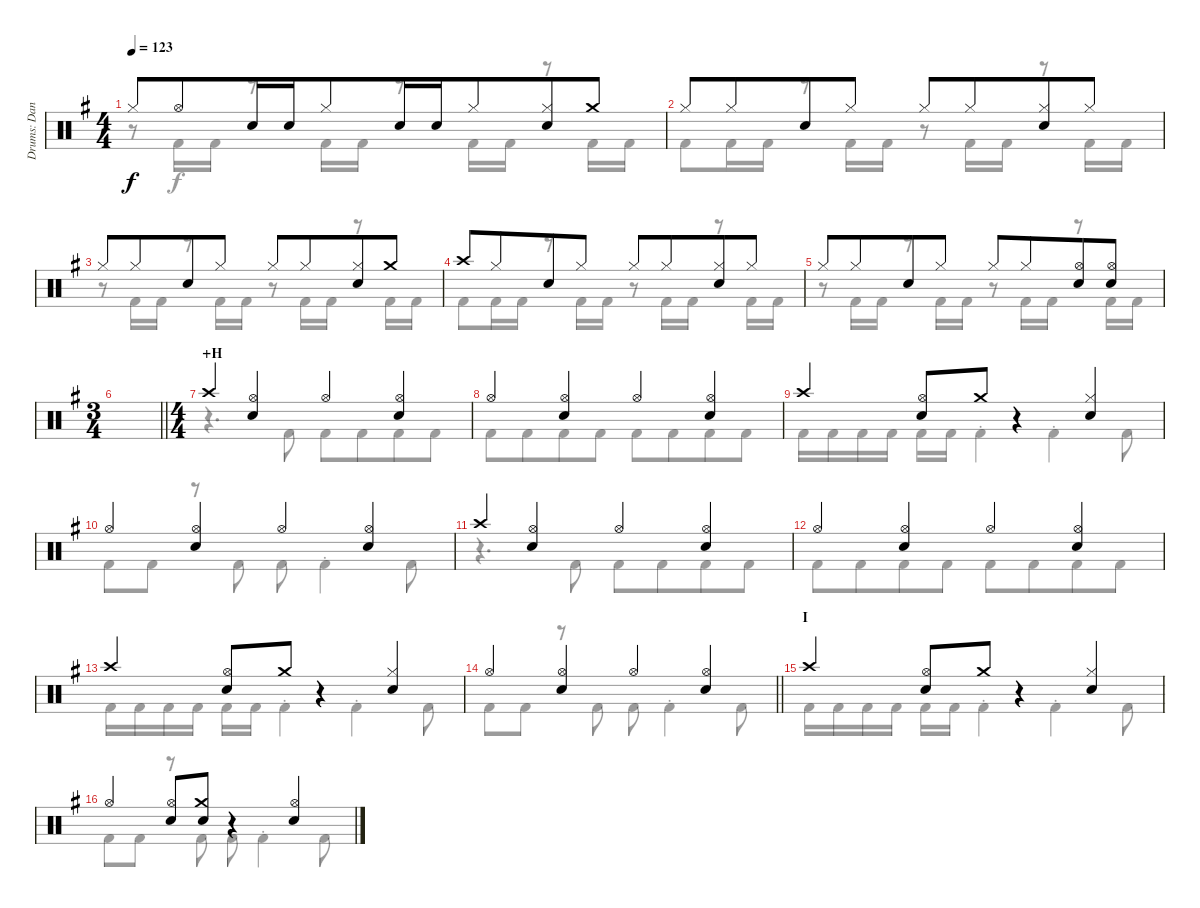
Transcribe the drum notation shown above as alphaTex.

\track ("Drums: Dana" "Drums: Dan") {instrument percussion}
\staff {score}
\articulation defaults
\voice
\ts (4 4)
\tempo 123
\clef neutral
\ks g "Hi-Hat (closed)".8{dy f} "Hi-Hat (open)".8{beam merge} "Snare (hit) 2".16{beam merge} "Snare (hit) 2".16 "Hi-Hat (closed)".8{beam merge} "Snare (hit) 2".16{beam merge} "Snare (hit) 2".16 "Hi-Hat (closed)".8{beam merge}
("Hi-Hat (closed)" "Snare (hit) 2").8 "Crash medium (hit)".8 |
"Hi-Hat (closed)".8 "Hi-Hat (closed)".8{beam merge} "Snare (hit) 2".8 "Hi-Hat (closed)".8 "Hi-Hat (closed)".8 "Hi-Hat (closed)".8{beam merge} ("Hi-Hat (closed)" "Snare (hit) 2").8 "Hi-Hat (closed)".8 |
"Hi-Hat (closed)".8 "Hi-Hat (closed)".8{beam merge} "Snare (hit) 2".8 "Hi-Hat (closed)".8 "Hi-Hat (closed)".8 "Hi-Hat (closed)".8{beam merge} ("Hi-Hat (closed)" "Snare (hit) 2").8 "Crash medium (hit)".8 |
"Crash high (hit)".8 "Hi-Hat (closed)".8{beam merge} "Snare (hit) 2".8 "Hi-Hat (closed)".8 "Hi-Hat (closed)".8 "Hi-Hat (closed)".8{beam merge} ("Hi-Hat (closed)" "Snare (hit) 2").8 "Hi-Hat (closed)".8 |
"Hi-Hat (closed)".8 "Hi-Hat (closed)".8{beam merge} "Snare (hit) 2".8 "Hi-Hat (closed)".8 "Hi-Hat (closed)".8 "Hi-Hat (closed)".8{beam merge} ("Hi-Hat (open)" "Snare (hit) 2").8 ("Hi-Hat (open)" "Snare (hit) 2").8 |
\ts (3 4)
\barLineRight lightlight
|
\ts (4 4)
\section ("" "+H")
"Crash high (hit)".4 ("Hi-Hat (open)" "Snare (hit) 2").4 "Hi-Hat (open)".4 ("Hi-Hat (open)" "Snare (hit) 2").4 |
"Hi-Hat (open)".4 ("Hi-Hat (open)" "Snare (hit) 2").4 "Hi-Hat (open)".4 ("Hi-Hat (open)" "Snare (hit) 2").4 |
"Crash high (hit)".4 ("Hi-Hat (open)" "Snare (hit) 2").8 "Crash medium (hit)".8 r.4 ("Hi-Hat (closed)" "Snare (hit) 2").4 |
"Hi-Hat (open)".4 ("Hi-Hat (open)" "Snare (hit) 2").4 "Hi-Hat (open)".4 ("Hi-Hat (open)" "Snare (hit) 2").4 |
"Crash high (hit)".4 ("Hi-Hat (open)" "Snare (hit) 2").4 "Hi-Hat (open)".4 ("Hi-Hat (open)" "Snare (hit) 2").4 |
"Hi-Hat (open)".4 ("Hi-Hat (open)" "Snare (hit) 2").4 "Hi-Hat (open)".4 ("Hi-Hat (open)" "Snare (hit) 2").4 |
"Crash high (hit)".4 ("Hi-Hat (open)" "Snare (hit) 2").8 "Crash medium (hit)".8 r.4 ("Hi-Hat (closed)" "Snare (hit) 2").4 |
\barLineRight lightlight "Hi-Hat (open)".4
("Hi-Hat (open)" "Snare (hit) 2").4 "Hi-Hat (open)".4 ("Hi-Hat (open)" "Snare (hit) 2").4 |
\section ("" "I")
"Crash high (hit)".4 ("Hi-Hat (open)" "Snare (hit) 2").8 "Crash medium (hit)".8 r.4 ("Hi-Hat (closed)" "Snare (hit) 2").4 |
"Hi-Hat (open)".4 ("Hi-Hat (open)" "Snare (hit) 2").8 ("Crash medium (hit)" "Snare (hit) 2").8 r.4 ("Hi-Hat (open)" "Snare (hit) 2").4
\voice
\clef neutral
\ottava regular
\simile none
\ks g
r.8{dy f} "Kick (hit) 2".16 "Kick (hit) 2".16 r.8 "Kick (hit) 2".16 "Kick (hit) 2".16 r.8 "Kick (hit) 2".16 "Kick (hit) 2".16 r.8 "Kick (hit) 2".16 "Kick (hit) 2".16 |
"Kick (hit) 2".8 "Kick (hit) 2".16 "Kick (hit) 2".16 r.8 "Kick (hit) 2".16 "Kick (hit) 2".16 r.8 "Kick (hit) 2".16 "Kick (hit) 2".16 r.8 "Kick (hit) 2".16 "Kick (hit) 2".16 |
r.8 "Kick (hit) 2".16 "Kick (hit) 2".16 r.8 "Kick (hit) 2".16 "Kick (hit) 2".16 r.8 "Kick (hit) 2".16 "Kick (hit) 2".16 r.8 "Kick (hit) 2".16 "Kick (hit) 2".16 |
"Kick (hit) 2".8 "Kick (hit) 2".16 "Kick (hit) 2".16 r.8 "Kick (hit) 2".16 "Kick (hit) 2".16 r.8 "Kick (hit) 2".16 "Kick (hit) 2".16 r.8 "Kick (hit) 2".16 "Kick (hit) 2".16 |
r.8 "Kick (hit) 2".16 "Kick (hit) 2".16 r.8 "Kick (hit) 2".16 "Kick (hit) 2".16 r.8 "Kick (hit) 2".16 "Kick (hit) 2".16 r.8 "Kick (hit) 2".16 "Kick (hit) 2".16 |
\barLineRight lightlight
|
r.4{d} "Kick (hit) 2".8 "Kick (hit) 2".8 "Kick (hit) 2".8{beam merge} "Kick (hit) 2".8 "Kick (hit) 2".8 |
"Kick (hit) 2".8 "Kick (hit) 2".8{beam merge} "Kick (hit) 2".8 "Kick (hit) 2".8 "Kick (hit) 2".8 "Kick (hit) 2".8{beam merge} "Kick (hit) 2".8 "Kick (hit) 2".8 |
"Kick (hit) 2".16 "Kick (hit) 2".16 "Kick (hit) 2".16 "Kick (hit) 2".16 "Kick (hit) 2".16 "Kick (hit) 2".16 "Kick (hit) 2"{st}.4 "Kick (hit) 2"{st}.4 "Kick (hit) 2".8 |
"Kick (hit) 2".8 "Kick (hit) 2".8 r.8 "Kick (hit) 2".8 "Kick (hit) 2".8 "Kick (hit) 2"{st}.4 "Kick (hit) 2".8 |
r.4{d} "Kick (hit) 2".8 "Kick (hit) 2".8 "Kick (hit) 2".8{beam merge} "Kick (hit) 2".8 "Kick (hit) 2".8 |
"Kick (hit) 2".8 "Kick (hit) 2".8{beam merge} "Kick (hit) 2".8 "Kick (hit) 2".8 "Kick (hit) 2".8 "Kick (hit) 2".8{beam merge} "Kick (hit) 2".8 "Kick (hit) 2".8 |
"Kick (hit) 2".16 "Kick (hit) 2".16 "Kick (hit) 2".16 "Kick (hit) 2".16 "Kick (hit) 2".16 "Kick (hit) 2".16 "Kick (hit) 2"{st}.4 "Kick (hit) 2"{st}.4 "Kick (hit) 2".8 |
\barLineRight lightlight "Kick (hit) 2".8 "Kick (hit) 2".8
r.8 "Kick (hit) 2".8 "Kick (hit) 2".8 "Kick (hit) 2"{st}.4 "Kick (hit) 2".8 |
"Kick (hit) 2".16 "Kick (hit) 2".16 "Kick (hit) 2".16 "Kick (hit) 2".16 "Kick (hit) 2".16 "Kick (hit) 2".16 "Kick (hit) 2"{st}.4 "Kick (hit) 2"{st}.4 "Kick (hit) 2".8 |
"Kick (hit) 2".8 "Kick (hit) 2".8 r.8 "Kick (hit) 2".8 "Kick (hit) 2".8 "Kick (hit) 2"{st}.4 "Kick (hit) 2".8
